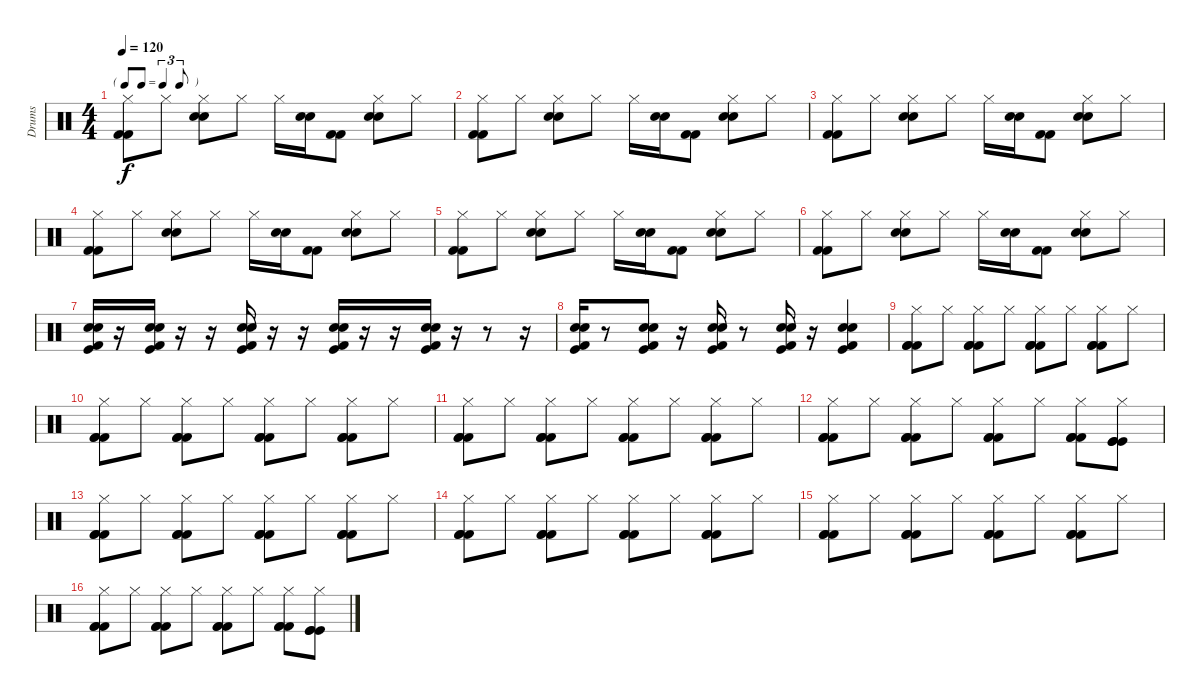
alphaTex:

\track ("Drums" "Drums") {instrument percussion}
\staff {score}
\articulation defaults
\ts (4 4)
\tf triplet8th
\tempo 120
\clef neutral
\ks c
("Hi-Hat (closed)" "Kick (hit) 2" "Kick (hit) 2").8{dy f} "Hi-Hat (closed)".8 ("Hi-Hat (closed)" "Electric Snare (hit)" "Electric Snare (hit)").8 "Hi-Hat (closed)".8 "Hi-Hat (closed)".16 ("Electric Snare (hit)" "Electric Snare (hit)").16 ("Kick (hit) 2" "Kick (hit) 2").8 ("Hi-Hat (closed)" "Electric Snare (hit)" "Electric Snare (hit)").8 "Hi-Hat (closed)".8 |
("Hi-Hat (closed)" "Kick (hit) 2" "Kick (hit) 2").8 "Hi-Hat (closed)".8 ("Hi-Hat (closed)" "Electric Snare (hit)" "Electric Snare (hit)").8 "Hi-Hat (closed)".8 "Hi-Hat (closed)".16 ("Electric Snare (hit)" "Electric Snare (hit)").16 ("Kick (hit) 2" "Kick (hit) 2").8 ("Hi-Hat (closed)" "Electric Snare (hit)" "Electric Snare (hit)").8 "Hi-Hat (closed)".8 |
("Hi-Hat (closed)" "Kick (hit) 2" "Kick (hit) 2").8 "Hi-Hat (closed)".8 ("Hi-Hat (closed)" "Electric Snare (hit)" "Electric Snare (hit)").8 "Hi-Hat (closed)".8 "Hi-Hat (closed)".16 ("Electric Snare (hit)" "Electric Snare (hit)").16 ("Kick (hit) 2" "Kick (hit) 2").8 ("Hi-Hat (closed)" "Electric Snare (hit)" "Electric Snare (hit)").8 "Hi-Hat (closed)".8 |
("Hi-Hat (closed)" "Kick (hit) 2" "Kick (hit) 2").8 "Hi-Hat (closed)".8 ("Hi-Hat (closed)" "Electric Snare (hit)" "Electric Snare (hit)").8 "Hi-Hat (closed)".8 "Hi-Hat (closed)".16 ("Electric Snare (hit)" "Electric Snare (hit)").16 ("Kick (hit) 2" "Kick (hit) 2").8 ("Hi-Hat (closed)" "Electric Snare (hit)" "Electric Snare (hit)").8 "Hi-Hat (closed)".8 |
("Hi-Hat (closed)" "Kick (hit) 2" "Kick (hit) 2").8 "Hi-Hat (closed)".8 ("Hi-Hat (closed)" "Electric Snare (hit)" "Electric Snare (hit)").8 "Hi-Hat (closed)".8 "Hi-Hat (closed)".16 ("Electric Snare (hit)" "Electric Snare (hit)").16 ("Kick (hit) 2" "Kick (hit) 2").8 ("Hi-Hat (closed)" "Electric Snare (hit)" "Electric Snare (hit)").8 "Hi-Hat (closed)".8 |
("Hi-Hat (closed)" "Kick (hit) 2" "Kick (hit) 2").8 "Hi-Hat (closed)".8 ("Hi-Hat (closed)" "Electric Snare (hit)" "Electric Snare (hit)").8 "Hi-Hat (closed)".8 "Hi-Hat (closed)".16 ("Electric Snare (hit)" "Electric Snare (hit)").16 ("Kick (hit) 2" "Kick (hit) 2").8 ("Hi-Hat (closed)" "Electric Snare (hit)" "Electric Snare (hit)").8 "Hi-Hat (closed)".8 |
("Snare (hit) 2" "Electric Snare (hit)" "Kick (hit)" "Kick (hit) 2").16{balance 0} r.16 ("Snare (hit) 2" "Electric Snare (hit)" "Kick (hit)" "Kick (hit) 2").16{balance 0} r.16 r.16 ("Snare (hit) 2" "Electric Snare (hit)" "Kick (hit)" "Kick (hit) 2").16{balance 16} r.16 r.16 ("Snare (hit) 2" "Electric Snare (hit)" "Kick (hit)" "Kick (hit) 2").16{balance 0} r.16 r.16 ("Snare (hit) 2" "Electric Snare (hit)" "Kick (hit)" "Kick (hit) 2").16{balance 8} r.16 r.8 r.16 |
("Snare (hit) 2" "Electric Snare (hit)" "Kick (hit)" "Kick (hit) 2").16{balance 16} r.8 ("Snare (hit) 2" "Electric Snare (hit)" "Kick (hit)" "Kick (hit) 2").8{balance 0} r.16 ("Snare (hit) 2" "Electric Snare (hit)" "Kick (hit)" "Kick (hit) 2").16{balance 16} r.8 ("Snare (hit) 2" "Electric Snare (hit)" "Kick (hit)" "Kick (hit) 2").16{balance 0} r.16 ("Snare (hit) 2" "Electric Snare (hit)" "Kick (hit)" "Kick (hit) 2").4{balance 8} |
("Hi-Hat (closed)" "Kick (hit) 2" "Kick (hit) 2" "Kick (hit) 2").8 "Hi-Hat (closed)".8 ("Hi-Hat (closed)" "Kick (hit) 2" "Kick (hit) 2" "Kick (hit) 2").8 "Hi-Hat (closed)".8 ("Hi-Hat (closed)" "Kick (hit) 2" "Kick (hit) 2" "Kick (hit) 2").8 "Hi-Hat (closed)".8 ("Hi-Hat (closed)" "Kick (hit) 2" "Kick (hit) 2" "Kick (hit) 2").8 "Hi-Hat (closed)".8 |
("Hi-Hat (closed)" "Kick (hit) 2" "Kick (hit) 2" "Kick (hit) 2").8 "Hi-Hat (closed)".8 ("Hi-Hat (closed)" "Kick (hit) 2" "Kick (hit) 2" "Kick (hit) 2").8 "Hi-Hat (closed)".8 ("Hi-Hat (closed)" "Kick (hit) 2" "Kick (hit) 2" "Kick (hit) 2").8 "Hi-Hat (closed)".8 ("Hi-Hat (closed)" "Kick (hit) 2" "Kick (hit) 2" "Kick (hit) 2").8 "Hi-Hat (closed)".8 |
("Hi-Hat (closed)" "Kick (hit) 2" "Kick (hit) 2" "Kick (hit) 2").8 "Hi-Hat (closed)".8 ("Hi-Hat (closed)" "Kick (hit) 2" "Kick (hit) 2" "Kick (hit) 2").8 "Hi-Hat (closed)".8 ("Hi-Hat (closed)" "Kick (hit) 2" "Kick (hit) 2" "Kick (hit) 2").8 "Hi-Hat (closed)".8 ("Hi-Hat (closed)" "Kick (hit) 2" "Kick (hit) 2" "Kick (hit) 2").8 "Hi-Hat (closed)".8 |
("Hi-Hat (closed)" "Kick (hit) 2" "Kick (hit) 2" "Kick (hit) 2").8 "Hi-Hat (closed)".8 ("Hi-Hat (closed)" "Kick (hit) 2" "Kick (hit) 2" "Kick (hit) 2").8 "Hi-Hat (closed)".8 ("Hi-Hat (closed)" "Kick (hit) 2" "Kick (hit) 2" "Kick (hit) 2").8 "Hi-Hat (closed)".8 ("Hi-Hat (closed)" "Kick (hit) 2" "Kick (hit) 2" "Kick (hit) 2").8 ("Hi-Hat (closed)" "Kick (hit)" "Kick (hit)" "Kick (hit)").8 |
("Hi-Hat (closed)" "Kick (hit) 2" "Kick (hit) 2" "Kick (hit) 2").8 "Hi-Hat (closed)".8 ("Hi-Hat (closed)" "Kick (hit) 2" "Kick (hit) 2" "Kick (hit) 2").8 "Hi-Hat (closed)".8 ("Hi-Hat (closed)" "Kick (hit) 2" "Kick (hit) 2" "Kick (hit) 2").8 "Hi-Hat (closed)".8 ("Hi-Hat (closed)" "Kick (hit) 2" "Kick (hit) 2" "Kick (hit) 2").8 "Hi-Hat (closed)".8 |
("Hi-Hat (closed)" "Kick (hit) 2" "Kick (hit) 2" "Kick (hit) 2").8 "Hi-Hat (closed)".8 ("Hi-Hat (closed)" "Kick (hit) 2" "Kick (hit) 2" "Kick (hit) 2").8 "Hi-Hat (closed)".8 ("Hi-Hat (closed)" "Kick (hit) 2" "Kick (hit) 2" "Kick (hit) 2").8 "Hi-Hat (closed)".8 ("Hi-Hat (closed)" "Kick (hit) 2" "Kick (hit) 2" "Kick (hit) 2").8 "Hi-Hat (closed)".8 |
("Hi-Hat (closed)" "Kick (hit) 2" "Kick (hit) 2" "Kick (hit) 2").8 "Hi-Hat (closed)".8 ("Hi-Hat (closed)" "Kick (hit) 2" "Kick (hit) 2" "Kick (hit) 2").8 "Hi-Hat (closed)".8 ("Hi-Hat (closed)" "Kick (hit) 2" "Kick (hit) 2" "Kick (hit) 2").8 "Hi-Hat (closed)".8 ("Hi-Hat (closed)" "Kick (hit) 2" "Kick (hit) 2" "Kick (hit) 2").8 "Hi-Hat (closed)".8 |
("Hi-Hat (closed)" "Kick (hit) 2" "Kick (hit) 2" "Kick (hit) 2").8 "Hi-Hat (closed)".8 ("Hi-Hat (closed)" "Kick (hit) 2" "Kick (hit) 2" "Kick (hit) 2").8 "Hi-Hat (closed)".8 ("Hi-Hat (closed)" "Kick (hit) 2" "Kick (hit) 2" "Kick (hit) 2").8 "Hi-Hat (closed)".8 ("Hi-Hat (closed)" "Kick (hit) 2" "Kick (hit) 2" "Kick (hit) 2").8 ("Hi-Hat (closed)" "Kick (hit)" "Kick (hit)" "Kick (hit)").8
